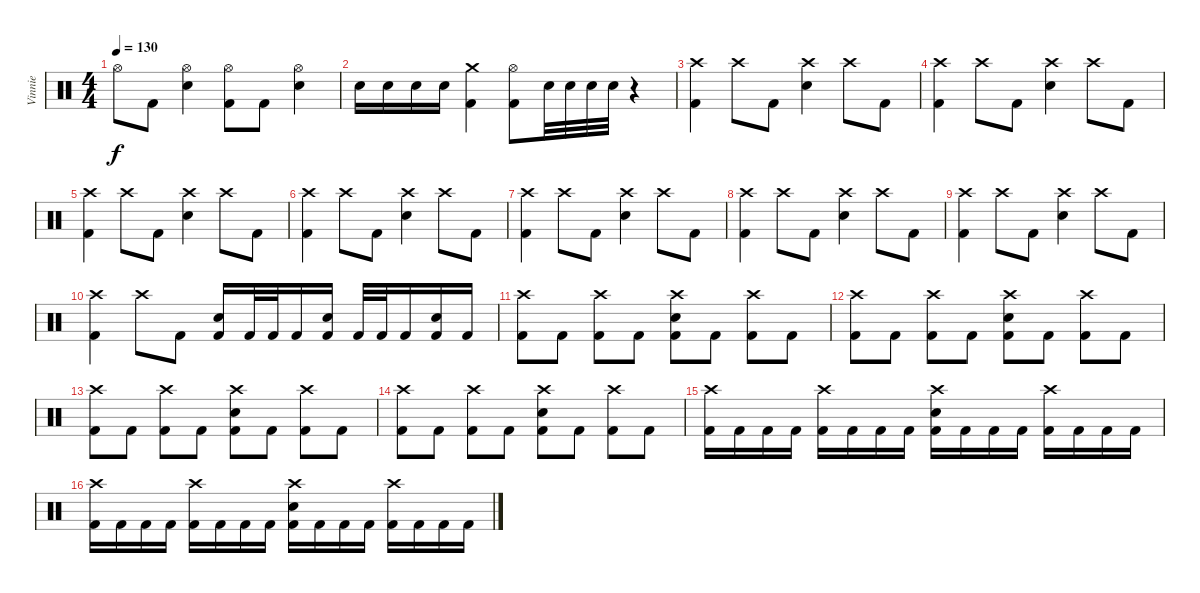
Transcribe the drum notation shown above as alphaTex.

\track ("Vinnie" "Vinnie") {instrument percussion}
\staff {score}
\articulation defaults
\ts (4 4)
\tempo 130
\clef neutral
\ks c "Hi-Hat (open)"{t}.8{dy f} "Kick (hit) 2".8
("Hi-Hat (open)" "Snare (hit) 2").4 ("Hi-Hat (open)" "Kick (hit) 2").8 "Kick (hit) 2".8 ("Hi-Hat (open)" "Snare (hit) 2").4 |
"Snare (hit) 2".16 "Snare (hit) 2".16 "Snare (hit) 2".16 "Snare (hit) 2".16 ("Crash medium (hit)" "Kick (hit) 2").4 ("Hi-Hat (open)" "Kick (hit) 2").8{bd 120} "Snare (hit) 2".32 "Snare (hit) 2".32 "Snare (hit) 2".32 "Snare (hit) 2".32 r.4 |
("Crash high (hit)" "Kick (hit) 2").4 "Crash high (hit)".8 "Kick (hit) 2".8 ("Crash high (hit)" "Snare (hit) 2").4 "Crash high (hit)".8 "Kick (hit) 2".8 |
("Crash high (hit)" "Kick (hit) 2").4 "Crash high (hit)".8 "Kick (hit) 2".8 ("Crash high (hit)" "Snare (hit) 2").4 "Crash high (hit)".8 "Kick (hit) 2".8 |
("Crash high (hit)" "Kick (hit) 2").4 "Crash high (hit)".8 "Kick (hit) 2".8 ("Crash high (hit)" "Snare (hit) 2").4 "Crash high (hit)".8 "Kick (hit) 2".8 |
("Crash high (hit)" "Kick (hit) 2").4 "Crash high (hit)".8 "Kick (hit) 2".8 ("Crash high (hit)" "Snare (hit) 2").4 "Crash high (hit)".8 "Kick (hit) 2".8 |
("Crash high (hit)" "Kick (hit) 2").4 "Crash high (hit)".8 "Kick (hit) 2".8 ("Crash high (hit)" "Snare (hit) 2").4 "Crash high (hit)".8 "Kick (hit) 2".8 |
("Crash high (hit)" "Kick (hit) 2").4 "Crash high (hit)".8 "Kick (hit) 2".8 ("Crash high (hit)" "Snare (hit) 2").4 "Crash high (hit)".8 "Kick (hit) 2".8 |
("Crash high (hit)" "Kick (hit) 2").4 "Crash high (hit)".8 "Kick (hit) 2".8 ("Crash high (hit)" "Snare (hit) 2").4 "Crash high (hit)".8 "Kick (hit) 2".8 |
("Crash high (hit)" "Kick (hit) 2").4 "Crash high (hit)".8 "Kick (hit) 2".8 ("Snare (hit) 2" "Kick (hit) 2").16 "Kick (hit) 2".32 "Kick (hit) 2".32 "Kick (hit) 2".16 ("Snare (hit) 2" "Kick (hit) 2").16 "Kick (hit) 2".32 "Kick (hit) 2".32 "Kick (hit) 2".16 ("Snare (hit) 2" "Kick (hit) 2").16 "Kick (hit) 2".16 |
("Crash high (hit)" "Kick (hit) 2").8 "Kick (hit) 2".8 ("Crash high (hit)" "Kick (hit) 2").8 "Kick (hit) 2".8 ("Crash high (hit)" "Snare (hit) 2" "Kick (hit) 2").8 "Kick (hit) 2".8 ("Crash high (hit)" "Kick (hit) 2").8 "Kick (hit) 2".8 |
("Crash high (hit)" "Kick (hit) 2").8 "Kick (hit) 2".8 ("Crash high (hit)" "Kick (hit) 2").8 "Kick (hit) 2".8 ("Crash high (hit)" "Snare (hit) 2" "Kick (hit) 2").8 "Kick (hit) 2".8 ("Crash high (hit)" "Kick (hit) 2").8 "Kick (hit) 2".8 |
("Crash high (hit)" "Kick (hit) 2").8 "Kick (hit) 2".8 ("Crash high (hit)" "Kick (hit) 2").8 "Kick (hit) 2".8 ("Crash high (hit)" "Snare (hit) 2" "Kick (hit) 2").8 "Kick (hit) 2".8 ("Crash high (hit)" "Kick (hit) 2").8 "Kick (hit) 2".8 |
("Crash high (hit)" "Kick (hit) 2").8 "Kick (hit) 2".8 ("Crash high (hit)" "Kick (hit) 2").8 "Kick (hit) 2".8 ("Crash high (hit)" "Snare (hit) 2" "Kick (hit) 2").8 "Kick (hit) 2".8 ("Crash high (hit)" "Kick (hit) 2").8 "Kick (hit) 2".8 |
("Crash high (hit)" "Kick (hit) 2").16 "Kick (hit) 2".16 "Kick (hit) 2".16 "Kick (hit) 2".16 ("Crash high (hit)" "Kick (hit) 2").16 "Kick (hit) 2".16 "Kick (hit) 2".16 "Kick (hit) 2".16 ("Crash high (hit)" "Snare (hit) 2" "Kick (hit) 2").16 "Kick (hit) 2".16 "Kick (hit) 2".16 "Kick (hit) 2".16 ("Crash high (hit)" "Kick (hit) 2").16 "Kick (hit) 2".16 "Kick (hit) 2".16 "Kick (hit) 2".16 |
("Crash high (hit)" "Kick (hit) 2").16 "Kick (hit) 2".16 "Kick (hit) 2".16 "Kick (hit) 2".16 ("Crash high (hit)" "Kick (hit) 2").16 "Kick (hit) 2".16 "Kick (hit) 2".16 "Kick (hit) 2".16 ("Crash high (hit)" "Snare (hit) 2" "Kick (hit) 2").16 "Kick (hit) 2".16 "Kick (hit) 2".16 "Kick (hit) 2".16 ("Crash high (hit)" "Kick (hit) 2").16 "Kick (hit) 2".16 "Kick (hit) 2".16 "Kick (hit) 2".16
